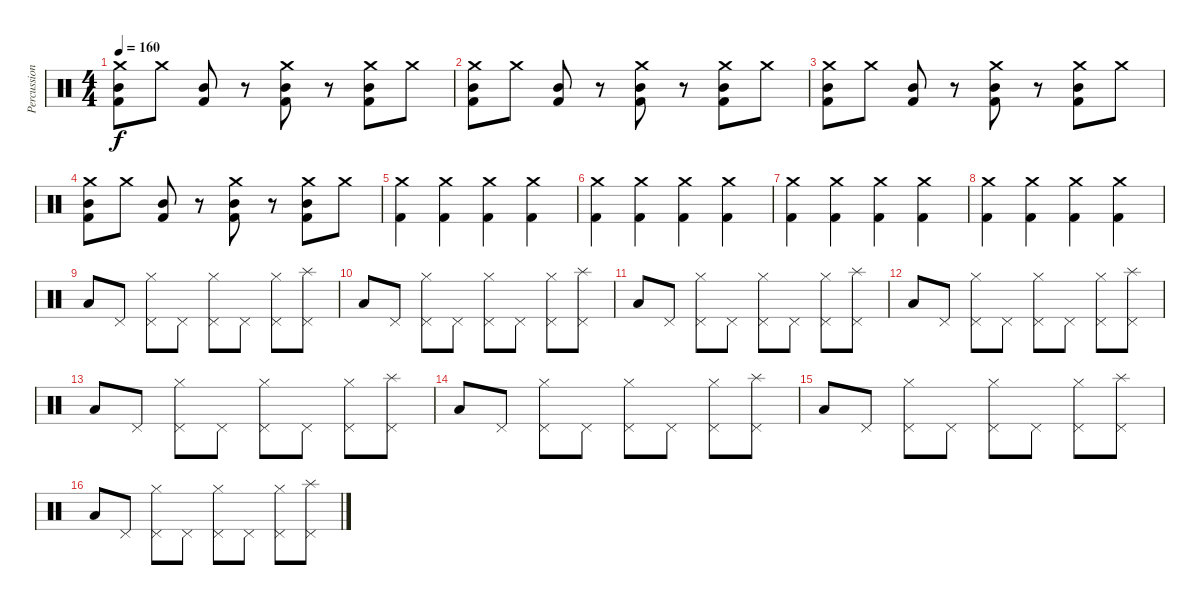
\track ("Percussion" "Percussion") {instrument percussion}
\staff {score}
\articulation defaults
\ts (4 4)
\tempo 160
\clef neutral
\ks c
("Crash medium (hit)" "Mid Tom (hit)" "Kick (hit) 2").8{dy f} "Crash medium (hit)".8 ("Mid Tom (hit)" "Kick (hit) 2").8 r.8 ("Crash medium (hit)" "Mid Tom (hit)" "Kick (hit) 2").8 r.8 ("Crash medium (hit)" "Mid Tom (hit)" "Kick (hit) 2").8 "Crash medium (hit)".8 |
("Crash medium (hit)" "Mid Tom (hit)" "Kick (hit) 2").8 "Crash medium (hit)".8 ("Mid Tom (hit)" "Kick (hit) 2").8 r.8 ("Crash medium (hit)" "Mid Tom (hit)" "Kick (hit) 2").8 r.8 ("Crash medium (hit)" "Mid Tom (hit)" "Kick (hit) 2").8 "Crash medium (hit)".8 |
("Crash medium (hit)" "Mid Tom (hit)" "Kick (hit) 2").8 "Crash medium (hit)".8 ("Mid Tom (hit)" "Kick (hit) 2").8 r.8 ("Crash medium (hit)" "Mid Tom (hit)" "Kick (hit) 2").8 r.8 ("Crash medium (hit)" "Mid Tom (hit)" "Kick (hit) 2").8 "Crash medium (hit)".8 |
("Crash medium (hit)" "Mid Tom (hit)" "Kick (hit) 2").8 "Crash medium (hit)".8 ("Mid Tom (hit)" "Kick (hit) 2").8 r.8 ("Crash medium (hit)" "Mid Tom (hit)" "Kick (hit) 2").8 r.8 ("Crash medium (hit)" "Mid Tom (hit)" "Kick (hit) 2").8 "Crash medium (hit)".8 |
("Crash medium (hit)" "Kick (hit) 2").4 ("Crash medium (hit)" "Kick (hit) 2").4 ("Crash medium (hit)" "Kick (hit) 2").4 ("Crash medium (hit)" "Kick (hit) 2").4 |
("Crash medium (hit)" "Kick (hit) 2").4 ("Crash medium (hit)" "Kick (hit) 2").4 ("Crash medium (hit)" "Kick (hit) 2").4 ("Crash medium (hit)" "Kick (hit) 2").4 |
("Crash medium (hit)" "Kick (hit) 2").4 ("Crash medium (hit)" "Kick (hit) 2").4 ("Crash medium (hit)" "Kick (hit) 2").4 ("Crash medium (hit)" "Kick (hit) 2").4 |
("Crash medium (hit)" "Kick (hit) 2").4 ("Crash medium (hit)" "Kick (hit) 2").4 ("Crash medium (hit)" "Kick (hit) 2").4 ("Crash medium (hit)" "Kick (hit) 2").4 |
"Low Tom (hit)".8 "Pedal Hi-Hat (hit)".8 ("Pedal Hi-Hat (hit)" "Hi-Hat (closed)").8 "Pedal Hi-Hat (hit)".8 ("Pedal Hi-Hat (hit)" "Hi-Hat (closed)").8 "Pedal Hi-Hat (hit)".8 ("Pedal Hi-Hat (hit)" "Hi-Hat (closed)").8 ("Pedal Hi-Hat (hit)" "Splash (hit)").8 |
"Low Tom (hit)".8 "Pedal Hi-Hat (hit)".8 ("Pedal Hi-Hat (hit)" "Hi-Hat (closed)").8 "Pedal Hi-Hat (hit)".8 ("Pedal Hi-Hat (hit)" "Hi-Hat (closed)").8 "Pedal Hi-Hat (hit)".8 ("Pedal Hi-Hat (hit)" "Hi-Hat (closed)").8 ("Pedal Hi-Hat (hit)" "Splash (hit)").8 |
"Low Tom (hit)".8 "Pedal Hi-Hat (hit)".8 ("Pedal Hi-Hat (hit)" "Hi-Hat (closed)").8 "Pedal Hi-Hat (hit)".8 ("Pedal Hi-Hat (hit)" "Hi-Hat (closed)").8 "Pedal Hi-Hat (hit)".8 ("Pedal Hi-Hat (hit)" "Hi-Hat (closed)").8 ("Pedal Hi-Hat (hit)" "Splash (hit)").8 |
"Low Tom (hit)".8 "Pedal Hi-Hat (hit)".8 ("Pedal Hi-Hat (hit)" "Hi-Hat (closed)").8 "Pedal Hi-Hat (hit)".8 ("Pedal Hi-Hat (hit)" "Hi-Hat (closed)").8 "Pedal Hi-Hat (hit)".8 ("Pedal Hi-Hat (hit)" "Hi-Hat (closed)").8 ("Pedal Hi-Hat (hit)" "Splash (hit)").8 |
"Low Tom (hit)".8 "Pedal Hi-Hat (hit)".8 ("Pedal Hi-Hat (hit)" "Hi-Hat (closed)").8 "Pedal Hi-Hat (hit)".8 ("Pedal Hi-Hat (hit)" "Hi-Hat (closed)").8 "Pedal Hi-Hat (hit)".8 ("Pedal Hi-Hat (hit)" "Hi-Hat (closed)").8 ("Pedal Hi-Hat (hit)" "Splash (hit)").8 |
"Low Tom (hit)".8 "Pedal Hi-Hat (hit)".8 ("Pedal Hi-Hat (hit)" "Hi-Hat (closed)").8 "Pedal Hi-Hat (hit)".8 ("Pedal Hi-Hat (hit)" "Hi-Hat (closed)").8 "Pedal Hi-Hat (hit)".8 ("Pedal Hi-Hat (hit)" "Hi-Hat (closed)").8 ("Pedal Hi-Hat (hit)" "Splash (hit)").8 |
"Low Tom (hit)".8 "Pedal Hi-Hat (hit)".8 ("Pedal Hi-Hat (hit)" "Hi-Hat (closed)").8 "Pedal Hi-Hat (hit)".8 ("Pedal Hi-Hat (hit)" "Hi-Hat (closed)").8 "Pedal Hi-Hat (hit)".8 ("Pedal Hi-Hat (hit)" "Hi-Hat (closed)").8 ("Pedal Hi-Hat (hit)" "Splash (hit)").8 |
"Low Tom (hit)".8 "Pedal Hi-Hat (hit)".8 ("Pedal Hi-Hat (hit)" "Hi-Hat (closed)").8 "Pedal Hi-Hat (hit)".8 ("Pedal Hi-Hat (hit)" "Hi-Hat (closed)").8 "Pedal Hi-Hat (hit)".8 ("Pedal Hi-Hat (hit)" "Hi-Hat (closed)").8 ("Pedal Hi-Hat (hit)" "Splash (hit)").8
